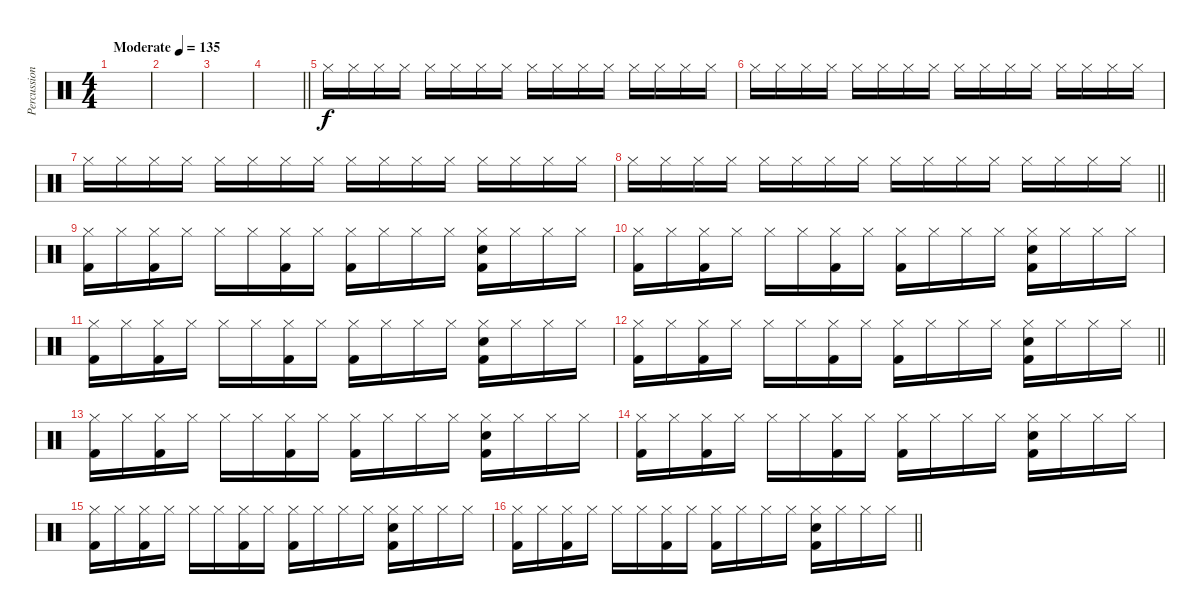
\track ("Percussion" "Percussion") {instrument percussion}
\staff {score}
\articulation defaults
\ts (4 4)
\tempo (135 "Moderate")
\clef neutral
\ks c
|
|
|
\barLineRight lightlight
|
\section ("" "")
"Hi-Hat (closed)".16 "Hi-Hat (closed)".16 "Hi-Hat (closed)".16 "Hi-Hat (closed)".16 "Hi-Hat (closed)".16 "Hi-Hat (closed)".16 "Hi-Hat (closed)".16 "Hi-Hat (closed)".16 "Hi-Hat (closed)".16 "Hi-Hat (closed)".16 "Hi-Hat (closed)".16 "Hi-Hat (closed)".16 "Hi-Hat (closed)".16 "Hi-Hat (closed)".16 "Hi-Hat (closed)".16 "Hi-Hat (closed)".16 |
"Hi-Hat (closed)".16 "Hi-Hat (closed)".16 "Hi-Hat (closed)".16 "Hi-Hat (closed)".16 "Hi-Hat (closed)".16 "Hi-Hat (closed)".16 "Hi-Hat (closed)".16 "Hi-Hat (closed)".16 "Hi-Hat (closed)".16 "Hi-Hat (closed)".16 "Hi-Hat (closed)".16 "Hi-Hat (closed)".16 "Hi-Hat (closed)".16 "Hi-Hat (closed)".16 "Hi-Hat (closed)".16 "Hi-Hat (closed)".16 |
"Hi-Hat (closed)".16 "Hi-Hat (closed)".16 "Hi-Hat (closed)".16 "Hi-Hat (closed)".16 "Hi-Hat (closed)".16 "Hi-Hat (closed)".16 "Hi-Hat (closed)".16 "Hi-Hat (closed)".16 "Hi-Hat (closed)".16 "Hi-Hat (closed)".16 "Hi-Hat (closed)".16 "Hi-Hat (closed)".16 "Hi-Hat (closed)".16 "Hi-Hat (closed)".16 "Hi-Hat (closed)".16 "Hi-Hat (closed)".16 |
\barLineRight lightlight "Hi-Hat (closed)".16 "Hi-Hat (closed)".16 "Hi-Hat (closed)".16 "Hi-Hat (closed)".16 "Hi-Hat (closed)".16 "Hi-Hat (closed)".16 "Hi-Hat (closed)".16 "Hi-Hat (closed)".16 "Hi-Hat (closed)".16 "Hi-Hat (closed)".16 "Hi-Hat (closed)".16 "Hi-Hat (closed)".16 "Hi-Hat (closed)".16 "Hi-Hat (closed)".16 "Hi-Hat (closed)".16 "Hi-Hat (closed)".16
|
\section ("" "")
("Hi-Hat (closed)" "Kick (hit) 2").16 "Hi-Hat (closed)".16 ("Hi-Hat (closed)" "Kick (hit) 2").16 "Hi-Hat (closed)".16 "Hi-Hat (closed)".16 "Hi-Hat (closed)".16 ("Hi-Hat (closed)" "Kick (hit) 2").16 "Hi-Hat (closed)".16 ("Hi-Hat (closed)" "Kick (hit) 2").16 "Hi-Hat (closed)".16 "Hi-Hat (closed)".16 "Hi-Hat (closed)".16 ("Hi-Hat (closed)" "Snare (hit) 2" "Kick (hit) 2").16 "Hi-Hat (closed)".16 "Hi-Hat (closed)".16 "Hi-Hat (closed)".16 |
("Hi-Hat (closed)" "Kick (hit) 2").16 "Hi-Hat (closed)".16 ("Hi-Hat (closed)" "Kick (hit) 2").16 "Hi-Hat (closed)".16 "Hi-Hat (closed)".16 "Hi-Hat (closed)".16 ("Hi-Hat (closed)" "Kick (hit) 2").16 "Hi-Hat (closed)".16 ("Hi-Hat (closed)" "Kick (hit) 2").16 "Hi-Hat (closed)".16 "Hi-Hat (closed)".16 "Hi-Hat (closed)".16 ("Hi-Hat (closed)" "Snare (hit) 2" "Kick (hit) 2").16 "Hi-Hat (closed)".16 "Hi-Hat (closed)".16 "Hi-Hat (closed)".16 |
("Hi-Hat (closed)" "Kick (hit) 2").16 "Hi-Hat (closed)".16 ("Hi-Hat (closed)" "Kick (hit) 2").16 "Hi-Hat (closed)".16 "Hi-Hat (closed)".16 "Hi-Hat (closed)".16 ("Hi-Hat (closed)" "Kick (hit) 2").16 "Hi-Hat (closed)".16 ("Hi-Hat (closed)" "Kick (hit) 2").16 "Hi-Hat (closed)".16 "Hi-Hat (closed)".16 "Hi-Hat (closed)".16 ("Hi-Hat (closed)" "Snare (hit) 2" "Kick (hit) 2").16 "Hi-Hat (closed)".16 "Hi-Hat (closed)".16 "Hi-Hat (closed)".16 |
\barLineRight lightlight
("Hi-Hat (closed)" "Kick (hit) 2").16 "Hi-Hat (closed)".16 ("Hi-Hat (closed)" "Kick (hit) 2").16 "Hi-Hat (closed)".16 "Hi-Hat (closed)".16 "Hi-Hat (closed)".16 ("Hi-Hat (closed)" "Kick (hit) 2").16 "Hi-Hat (closed)".16 ("Hi-Hat (closed)" "Kick (hit) 2").16 "Hi-Hat (closed)".16 "Hi-Hat (closed)".16 "Hi-Hat (closed)".16 ("Hi-Hat (closed)" "Snare (hit) 2" "Kick (hit) 2").16 "Hi-Hat (closed)".16 "Hi-Hat (closed)".16 "Hi-Hat (closed)".16 |
\section ("" "")
("Hi-Hat (closed)" "Kick (hit) 2").16 "Hi-Hat (closed)".16 ("Hi-Hat (closed)" "Kick (hit) 2").16 "Hi-Hat (closed)".16 "Hi-Hat (closed)".16 "Hi-Hat (closed)".16 ("Hi-Hat (closed)" "Kick (hit) 2").16 "Hi-Hat (closed)".16 ("Hi-Hat (closed)" "Kick (hit) 2").16 "Hi-Hat (closed)".16 "Hi-Hat (closed)".16 "Hi-Hat (closed)".16 ("Hi-Hat (closed)" "Snare (hit) 2" "Kick (hit) 2").16 "Hi-Hat (closed)".16 "Hi-Hat (closed)".16 "Hi-Hat (closed)".16 |
("Hi-Hat (closed)" "Kick (hit) 2").16 "Hi-Hat (closed)".16 ("Hi-Hat (closed)" "Kick (hit) 2").16 "Hi-Hat (closed)".16 "Hi-Hat (closed)".16 "Hi-Hat (closed)".16 ("Hi-Hat (closed)" "Kick (hit) 2").16 "Hi-Hat (closed)".16 ("Hi-Hat (closed)" "Kick (hit) 2").16 "Hi-Hat (closed)".16 "Hi-Hat (closed)".16 "Hi-Hat (closed)".16 ("Hi-Hat (closed)" "Snare (hit) 2" "Kick (hit) 2").16 "Hi-Hat (closed)".16 "Hi-Hat (closed)".16 "Hi-Hat (closed)".16 |
("Hi-Hat (closed)" "Kick (hit) 2").16 "Hi-Hat (closed)".16 ("Hi-Hat (closed)" "Kick (hit) 2").16 "Hi-Hat (closed)".16 "Hi-Hat (closed)".16 "Hi-Hat (closed)".16 ("Hi-Hat (closed)" "Kick (hit) 2").16 "Hi-Hat (closed)".16 ("Hi-Hat (closed)" "Kick (hit) 2").16 "Hi-Hat (closed)".16 "Hi-Hat (closed)".16 "Hi-Hat (closed)".16 ("Hi-Hat (closed)" "Snare (hit) 2" "Kick (hit) 2").16 "Hi-Hat (closed)".16 "Hi-Hat (closed)".16 "Hi-Hat (closed)".16 |
\barLineRight lightlight
("Hi-Hat (closed)" "Kick (hit) 2").16 "Hi-Hat (closed)".16 ("Hi-Hat (closed)" "Kick (hit) 2").16 "Hi-Hat (closed)".16 "Hi-Hat (closed)".16 "Hi-Hat (closed)".16 ("Hi-Hat (closed)" "Kick (hit) 2").16 "Hi-Hat (closed)".16 ("Hi-Hat (closed)" "Kick (hit) 2").16 "Hi-Hat (closed)".16 "Hi-Hat (closed)".16 "Hi-Hat (closed)".16 ("Hi-Hat (closed)" "Snare (hit) 2" "Kick (hit) 2").16 "Hi-Hat (closed)".16 "Hi-Hat (closed)".16 "Hi-Hat (closed)".16
